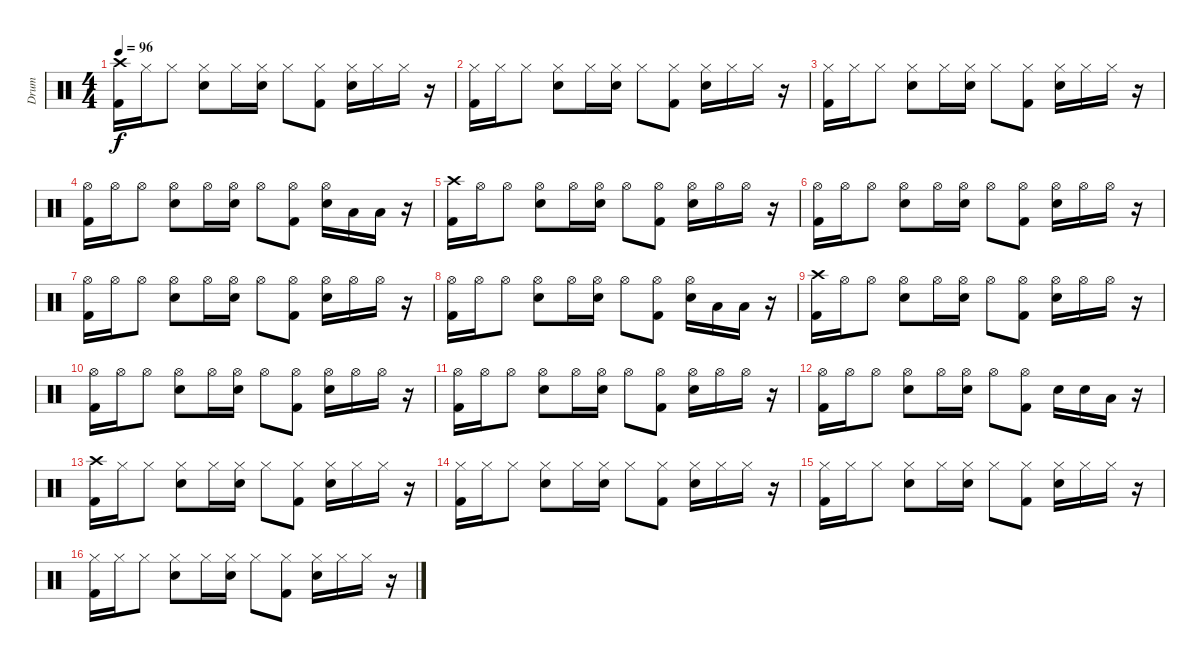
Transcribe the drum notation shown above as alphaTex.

\track ("Drum" "Drum") {instrument percussion}
\staff {score}
\articulation defaults
\ts (4 4)
\tempo 96
\clef neutral
\ks c
("Crash high (hit)" "Kick (hit) 2").16{dy f} "Hi-Hat (closed)".16 "Hi-Hat (closed)".8 ("Hi-Hat (closed)" "Snare (hit) 2").8 "Hi-Hat (closed)".16 ("Hi-Hat (closed)" "Snare (hit) 2").16 "Hi-Hat (closed)".8 ("Hi-Hat (closed)" "Kick (hit) 2").8 ("Hi-Hat (closed)" "Snare (hit) 2").16 "Hi-Hat (closed)".16 "Hi-Hat (closed)".16 r.16 |
("Hi-Hat (closed)" "Kick (hit) 2").16 "Hi-Hat (closed)".16 "Hi-Hat (closed)".8 ("Hi-Hat (closed)" "Snare (hit) 2").8 "Hi-Hat (closed)".16 ("Hi-Hat (closed)" "Snare (hit) 2").16 "Hi-Hat (closed)".8 ("Hi-Hat (closed)" "Kick (hit) 2").8 ("Hi-Hat (closed)" "Snare (hit) 2").16 "Hi-Hat (closed)".16 "Hi-Hat (closed)".16 r.16 |
("Hi-Hat (closed)" "Kick (hit) 2").16 "Hi-Hat (closed)".16 "Hi-Hat (closed)".8 ("Hi-Hat (closed)" "Snare (hit) 2").8 "Hi-Hat (closed)".16 ("Hi-Hat (closed)" "Snare (hit) 2").16 "Hi-Hat (closed)".8 ("Hi-Hat (closed)" "Kick (hit) 2").8 ("Hi-Hat (closed)" "Snare (hit) 2").16 "Hi-Hat (closed)".16 "Hi-Hat (closed)".16 r.16 |
("Hi-Hat (open)" "Kick (hit) 2").16 "Hi-Hat (open)".16 "Hi-Hat (open)".8 ("Hi-Hat (open)" "Snare (hit) 2").8 "Hi-Hat (open)".16 ("Hi-Hat (open)" "Snare (hit) 2").16 "Hi-Hat (open)".8 ("Hi-Hat (open)" "Kick (hit) 2").8 ("Hi-Hat (open)" "Snare (hit) 2").16 "Low Tom (hit)".16 "Low Tom (hit)".16 r.16 |
("Crash high (hit)" "Kick (hit) 2").16 "Hi-Hat (open)".16 "Hi-Hat (open)".8 ("Hi-Hat (open)" "Snare (hit) 2").8 "Hi-Hat (open)".16 ("Hi-Hat (open)" "Snare (hit) 2").16 "Hi-Hat (open)".8 ("Hi-Hat (open)" "Kick (hit) 2").8 ("Hi-Hat (open)" "Snare (hit) 2").16 "Hi-Hat (open)".16 "Hi-Hat (open)".16 r.16 |
("Hi-Hat (open)" "Kick (hit) 2").16 "Hi-Hat (open)".16 "Hi-Hat (open)".8 ("Hi-Hat (open)" "Snare (hit) 2").8 "Hi-Hat (open)".16 ("Hi-Hat (open)" "Snare (hit) 2").16 "Hi-Hat (open)".8 ("Hi-Hat (open)" "Kick (hit) 2").8 ("Hi-Hat (open)" "Snare (hit) 2").16 "Hi-Hat (open)".16 "Hi-Hat (open)".16 r.16 |
("Hi-Hat (open)" "Kick (hit) 2").16 "Hi-Hat (open)".16 "Hi-Hat (open)".8 ("Hi-Hat (open)" "Snare (hit) 2").8 "Hi-Hat (open)".16 ("Hi-Hat (open)" "Snare (hit) 2").16 "Hi-Hat (open)".8 ("Hi-Hat (open)" "Kick (hit) 2").8 ("Hi-Hat (open)" "Snare (hit) 2").16 "Hi-Hat (open)".16 "Hi-Hat (open)".16 r.16 |
("Hi-Hat (open)" "Kick (hit) 2").16 "Hi-Hat (open)".16 "Hi-Hat (open)".8 ("Hi-Hat (open)" "Snare (hit) 2").8 "Hi-Hat (open)".16 ("Hi-Hat (open)" "Snare (hit) 2").16 "Hi-Hat (open)".8 ("Hi-Hat (open)" "Kick (hit) 2").8 ("Hi-Hat (open)" "Snare (hit) 2").16 "Low Tom (hit)".16 "Low Tom (hit)".16 r.16 |
("Crash high (hit)" "Kick (hit) 2").16 "Hi-Hat (open)".16 "Hi-Hat (open)".8 ("Hi-Hat (open)" "Snare (hit) 2").8 "Hi-Hat (open)".16 ("Hi-Hat (open)" "Snare (hit) 2").16 "Hi-Hat (open)".8 ("Hi-Hat (open)" "Kick (hit) 2").8 ("Hi-Hat (open)" "Snare (hit) 2").16 "Hi-Hat (open)".16 "Hi-Hat (open)".16 r.16 |
("Hi-Hat (open)" "Kick (hit) 2").16 "Hi-Hat (open)".16 "Hi-Hat (open)".8 ("Hi-Hat (open)" "Snare (hit) 2").8 "Hi-Hat (open)".16 ("Hi-Hat (open)" "Snare (hit) 2").16 "Hi-Hat (open)".8 ("Hi-Hat (open)" "Kick (hit) 2").8 ("Hi-Hat (open)" "Snare (hit) 2").16 "Hi-Hat (open)".16 "Hi-Hat (open)".16 r.16 |
("Hi-Hat (open)" "Kick (hit) 2").16 "Hi-Hat (open)".16 "Hi-Hat (open)".8 ("Hi-Hat (open)" "Snare (hit) 2").8 "Hi-Hat (open)".16 ("Hi-Hat (open)" "Snare (hit) 2").16 "Hi-Hat (open)".8 ("Hi-Hat (open)" "Kick (hit) 2").8 ("Hi-Hat (open)" "Snare (hit) 2").16 "Hi-Hat (open)".16 "Hi-Hat (open)".16 r.16 |
("Hi-Hat (open)" "Kick (hit) 2").16 "Hi-Hat (open)".16 "Hi-Hat (open)".8 ("Hi-Hat (open)" "Snare (hit) 2").8 "Hi-Hat (open)".16 ("Hi-Hat (open)" "Snare (hit) 2").16 "Hi-Hat (open)".8 ("Hi-Hat (open)" "Kick (hit) 2").8 "Snare (hit) 2".16 "Snare (hit) 2".16 "Low Tom (hit)".16 r.16 |
("Crash high (hit)" "Kick (hit) 2").16 "Hi-Hat (closed)".16 "Hi-Hat (closed)".8 ("Hi-Hat (closed)" "Snare (hit) 2").8 "Hi-Hat (closed)".16 ("Hi-Hat (closed)" "Snare (hit) 2").16 "Hi-Hat (closed)".8 ("Hi-Hat (closed)" "Kick (hit) 2").8 ("Hi-Hat (closed)" "Snare (hit) 2").16 "Hi-Hat (closed)".16 "Hi-Hat (closed)".16 r.16 |
("Hi-Hat (closed)" "Kick (hit) 2").16 "Hi-Hat (closed)".16 "Hi-Hat (closed)".8 ("Hi-Hat (closed)" "Snare (hit) 2").8 "Hi-Hat (closed)".16 ("Hi-Hat (closed)" "Snare (hit) 2").16 "Hi-Hat (closed)".8 ("Hi-Hat (closed)" "Kick (hit) 2").8 ("Hi-Hat (closed)" "Snare (hit) 2").16 "Hi-Hat (closed)".16 "Hi-Hat (closed)".16 r.16 |
("Hi-Hat (closed)" "Kick (hit) 2").16 "Hi-Hat (closed)".16 "Hi-Hat (closed)".8 ("Hi-Hat (closed)" "Snare (hit) 2").8 "Hi-Hat (closed)".16 ("Hi-Hat (closed)" "Snare (hit) 2").16 "Hi-Hat (closed)".8 ("Hi-Hat (closed)" "Kick (hit) 2").8 ("Hi-Hat (closed)" "Snare (hit) 2").16 "Hi-Hat (closed)".16 "Hi-Hat (closed)".16 r.16 |
("Hi-Hat (closed)" "Kick (hit) 2").16 "Hi-Hat (closed)".16 "Hi-Hat (closed)".8 ("Hi-Hat (closed)" "Snare (hit) 2").8 "Hi-Hat (closed)".16 ("Hi-Hat (closed)" "Snare (hit) 2").16 "Hi-Hat (closed)".8 ("Hi-Hat (closed)" "Kick (hit) 2").8 ("Hi-Hat (closed)" "Snare (hit) 2").16 "Hi-Hat (closed)".16 "Hi-Hat (closed)".16 r.16
